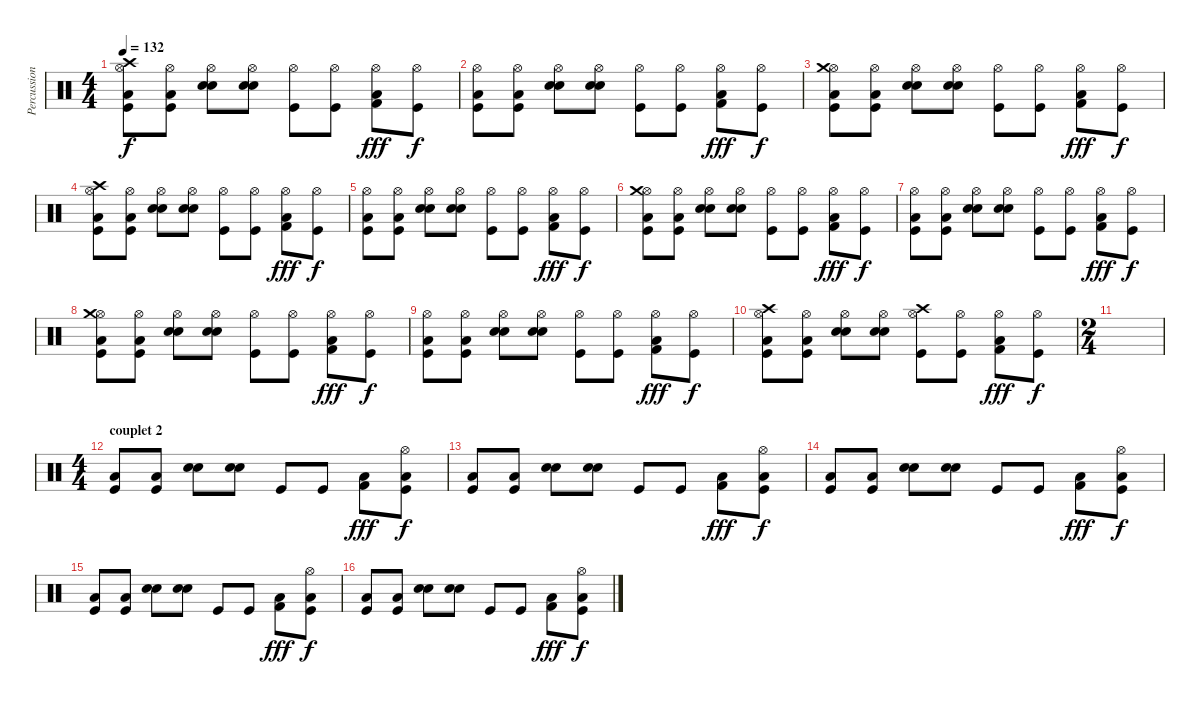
\track ("Percussions" "Percussion") {instrument percussion}
\staff {score}
\articulation defaults
\ts (4 4)
\tempo 132
\clef neutral
\ks c
("Hi-Hat (open)" "Crash high (hit)" "Low Floor Tom (hit)" "Kick (hit)").8{dy f} ("Hi-Hat (open)" "Low Floor Tom (hit)" "Kick (hit)").8 ("Hi-Hat (open)" "Electric Snare (hit)" "Snare (hit) 2").8 ("Hi-Hat (open)" "Electric Snare (hit)" "Snare (hit) 2").8 ("Hi-Hat (open)" "Kick (hit)").8 ("Hi-Hat (open)" "Kick (hit)").8 ("Hi-Hat (open)" "Kick (hit) 2" "Low Floor Tom (hit)").8{dy fff} ("Hi-Hat (open)" "Kick (hit)").8{dy f} |
("Hi-Hat (open)" "Low Floor Tom (hit)" "Kick (hit)").8 ("Hi-Hat (open)" "Low Floor Tom (hit)" "Kick (hit)").8 ("Hi-Hat (open)" "Electric Snare (hit)" "Snare (hit) 2").8 ("Hi-Hat (open)" "Electric Snare (hit)" "Snare (hit) 2").8 ("Hi-Hat (open)" "Kick (hit)").8 ("Hi-Hat (open)" "Kick (hit)").8 ("Hi-Hat (open)" "Kick (hit) 2" "Low Floor Tom (hit)").8{dy fff} ("Hi-Hat (open)" "Kick (hit)").8{dy f} |
("Hi-Hat (open)" "Crash medium (hit)" "Low Floor Tom (hit)" "Kick (hit)").8 ("Hi-Hat (open)" "Low Floor Tom (hit)" "Kick (hit)").8 ("Hi-Hat (open)" "Electric Snare (hit)" "Snare (hit) 2").8 ("Hi-Hat (open)" "Electric Snare (hit)" "Snare (hit) 2").8 ("Hi-Hat (open)" "Kick (hit)").8 ("Hi-Hat (open)" "Kick (hit)").8 ("Hi-Hat (open)" "Kick (hit) 2" "Low Floor Tom (hit)").8{dy fff} ("Hi-Hat (open)" "Kick (hit)").8{dy f} |
("Hi-Hat (open)" "Crash high (hit)" "Low Floor Tom (hit)" "Kick (hit)").8 ("Hi-Hat (open)" "Low Floor Tom (hit)" "Kick (hit)").8 ("Hi-Hat (open)" "Electric Snare (hit)" "Snare (hit) 2").8 ("Hi-Hat (open)" "Electric Snare (hit)" "Snare (hit) 2").8 ("Hi-Hat (open)" "Kick (hit)").8 ("Hi-Hat (open)" "Kick (hit)").8 ("Hi-Hat (open)" "Kick (hit) 2" "Low Floor Tom (hit)").8{dy fff} ("Hi-Hat (open)" "Kick (hit)").8{dy f} |
("Hi-Hat (open)" "Low Floor Tom (hit)" "Kick (hit)").8 ("Hi-Hat (open)" "Low Floor Tom (hit)" "Kick (hit)").8 ("Hi-Hat (open)" "Electric Snare (hit)" "Snare (hit) 2").8 ("Hi-Hat (open)" "Electric Snare (hit)" "Snare (hit) 2").8 ("Hi-Hat (open)" "Kick (hit)").8 ("Hi-Hat (open)" "Kick (hit)").8 ("Hi-Hat (open)" "Kick (hit) 2" "Low Floor Tom (hit)").8{dy fff} ("Hi-Hat (open)" "Kick (hit)").8{dy f} |
("Hi-Hat (open)" "Crash medium (hit)" "Low Floor Tom (hit)" "Kick (hit)").8 ("Hi-Hat (open)" "Low Floor Tom (hit)" "Kick (hit)").8 ("Hi-Hat (open)" "Electric Snare (hit)" "Snare (hit) 2").8 ("Hi-Hat (open)" "Electric Snare (hit)" "Snare (hit) 2").8 ("Hi-Hat (open)" "Kick (hit)").8 ("Hi-Hat (open)" "Kick (hit)").8 ("Hi-Hat (open)" "Kick (hit) 2" "Low Floor Tom (hit)").8{dy fff} ("Hi-Hat (open)" "Kick (hit)").8{dy f} |
("Hi-Hat (open)" "Low Floor Tom (hit)" "Kick (hit)").8 ("Hi-Hat (open)" "Low Floor Tom (hit)" "Kick (hit)").8 ("Hi-Hat (open)" "Electric Snare (hit)" "Snare (hit) 2").8 ("Hi-Hat (open)" "Electric Snare (hit)" "Snare (hit) 2").8 ("Hi-Hat (open)" "Kick (hit)").8 ("Hi-Hat (open)" "Kick (hit)").8 ("Hi-Hat (open)" "Kick (hit) 2" "Low Floor Tom (hit)").8{dy fff} ("Hi-Hat (open)" "Kick (hit)").8{dy f} |
("Hi-Hat (open)" "Crash medium (hit)" "Low Floor Tom (hit)" "Kick (hit)").8 ("Hi-Hat (open)" "Low Floor Tom (hit)" "Kick (hit)").8 ("Hi-Hat (open)" "Electric Snare (hit)" "Snare (hit) 2").8 ("Hi-Hat (open)" "Electric Snare (hit)" "Snare (hit) 2").8 ("Hi-Hat (open)" "Kick (hit)").8 ("Hi-Hat (open)" "Kick (hit)").8 ("Hi-Hat (open)" "Kick (hit) 2" "Low Floor Tom (hit)").8{dy fff} ("Hi-Hat (open)" "Kick (hit)").8{dy f} |
("Hi-Hat (open)" "Low Floor Tom (hit)" "Kick (hit)").8 ("Hi-Hat (open)" "Low Floor Tom (hit)" "Kick (hit)").8 ("Hi-Hat (open)" "Electric Snare (hit)" "Snare (hit) 2").8 ("Hi-Hat (open)" "Electric Snare (hit)" "Snare (hit) 2").8 ("Hi-Hat (open)" "Kick (hit)").8 ("Hi-Hat (open)" "Kick (hit)").8 ("Hi-Hat (open)" "Kick (hit) 2" "Low Floor Tom (hit)").8{dy fff} ("Hi-Hat (open)" "Kick (hit)").8{dy f} |
("Hi-Hat (open)" "Crash high (hit)" "Low Floor Tom (hit)" "Kick (hit)").8 ("Hi-Hat (open)" "Low Floor Tom (hit)" "Kick (hit)").8 ("Hi-Hat (open)" "Electric Snare (hit)" "Snare (hit) 2").8 ("Hi-Hat (open)" "Electric Snare (hit)" "Snare (hit) 2").8 ("Hi-Hat (open)" "Crash high (hit)" "Kick (hit)").8 ("Hi-Hat (open)" "Kick (hit)").8 ("Hi-Hat (open)" "Kick (hit) 2" "Low Floor Tom (hit)").8{dy fff} ("Hi-Hat (open)" "Kick (hit)").8{dy f} |
\ts (2 4)
|
\ts (4 4)
\section ("" "couplet 2")
("Low Floor Tom (hit)" "Kick (hit)").8 ("Low Floor Tom (hit)" "Kick (hit)").8 ("Electric Snare (hit)" "Snare (hit) 2").8{bu 480} ("Electric Snare (hit)" "Snare (hit) 2").8{bu 480} "Kick (hit)".8 "Kick (hit)".8 ("Kick (hit) 2" "Low Floor Tom (hit)").8{dy fff} ("Hi-Hat (open)" "Low Tom (hit)" "Kick (hit)").8{dy f} |
("Low Floor Tom (hit)" "Kick (hit)").8 ("Low Floor Tom (hit)" "Kick (hit)").8 ("Electric Snare (hit)" "Snare (hit) 2").8{bu 480} ("Electric Snare (hit)" "Snare (hit) 2").8{bu 480} "Kick (hit)".8 "Kick (hit)".8 ("Kick (hit) 2" "Low Floor Tom (hit)").8{dy fff} ("Hi-Hat (open)" "Low Tom (hit)" "Kick (hit)").8{dy f} |
("Low Floor Tom (hit)" "Kick (hit)").8 ("Low Floor Tom (hit)" "Kick (hit)").8 ("Electric Snare (hit)" "Snare (hit) 2").8{bu 480} ("Electric Snare (hit)" "Snare (hit) 2").8{bu 480} "Kick (hit)".8 "Kick (hit)".8 ("Kick (hit) 2" "Low Floor Tom (hit)").8{dy fff} ("Hi-Hat (open)" "Low Tom (hit)" "Kick (hit)").8{dy f} |
("Low Floor Tom (hit)" "Kick (hit)").8 ("Low Floor Tom (hit)" "Kick (hit)").8 ("Electric Snare (hit)" "Snare (hit) 2").8{bu 480} ("Electric Snare (hit)" "Snare (hit) 2").8{bu 480} "Kick (hit)".8 "Kick (hit)".8 ("Kick (hit) 2" "Low Floor Tom (hit)").8{dy fff} ("Hi-Hat (open)" "Low Tom (hit)" "Kick (hit)").8{dy f} |
("Low Floor Tom (hit)" "Kick (hit)").8 ("Low Floor Tom (hit)" "Kick (hit)").8 ("Electric Snare (hit)" "Snare (hit) 2").8{bu 480} ("Electric Snare (hit)" "Snare (hit) 2").8{bu 480} "Kick (hit)".8 "Kick (hit)".8 ("Kick (hit) 2" "Low Floor Tom (hit)").8{dy fff} ("Hi-Hat (open)" "Low Tom (hit)" "Kick (hit)").8{dy f}
